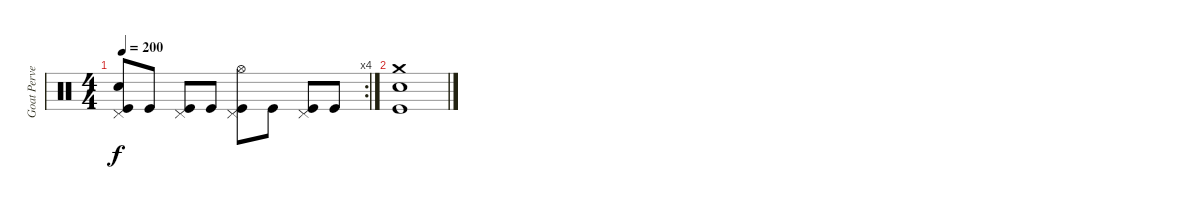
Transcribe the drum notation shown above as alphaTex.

\track ("Goat Pervertor" "Goat Perve") {instrument percussion}
\staff {score}
\articulation defaults
\rc 4
\ts (4 4)
\tempo 200
\clef neutral
\ks c
("Kick (hit)" "Snare (hit) 2" "Pedal Hi-Hat (hit)").8{dy f} "Kick (hit)".8 ("Kick (hit)" "Pedal Hi-Hat (hit)").8 "Kick (hit)".8 ("Kick (hit)" "Hi-Hat (open)" "Pedal Hi-Hat (hit)").8 "Kick (hit)".8 ("Kick (hit)" "Pedal Hi-Hat (hit)").8 "Kick (hit)".8 |
("Kick (hit)" "Crash medium (hit)" "Snare (hit) 2").1
